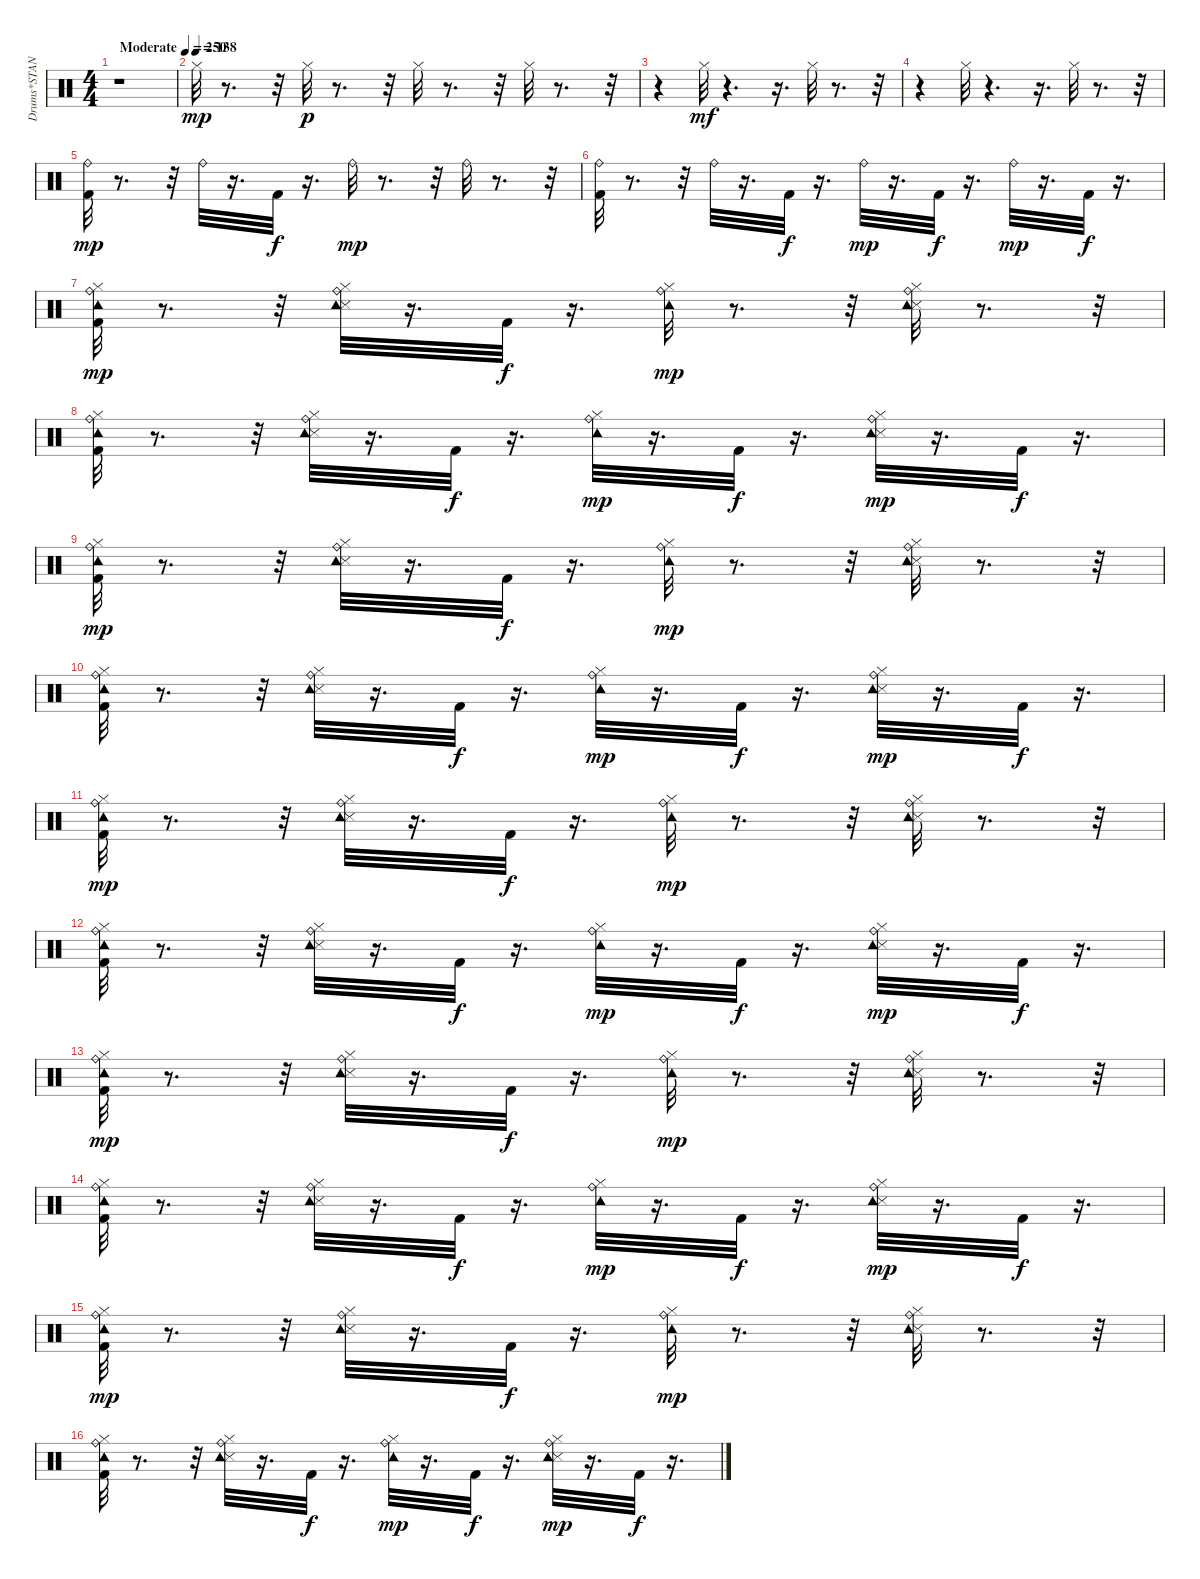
\track ("Drums*STANDARD      " "Drums*STAN") {instrument percussion}
\staff {score}
\articulation defaults
\ts (4 4)
\tempo (250 "Moderate")
\clef neutral
\ks c
r.1{dy mp} |
\tempo (138)
"Hi-Hat (closed)".32 r.8{d} r.32 "Hi-Hat (closed)".32{dy p} r.8{d} r.32 "Hi-Hat (closed)".32 r.8{d} r.32 "Hi-Hat (closed)".32 r.8{d} r.32 |
r.4 "Hi-Hat (closed)".32{dy mf} r.4{d} r.16{d} "Hi-Hat (closed)".32 r.8{d} r.32 |
r.4 "Hi-Hat (closed)".32 r.4{d} r.16{d} "Hi-Hat (closed)".32 r.8{d} r.32 |
("Kick (hit) 2" "Ride (bell)").32{dy mp} r.8{d} r.32 "Ride (bell)".32 r.16{d} "Kick (hit) 2".32{dy f} r.16{d} "Ride (bell)".32{dy mp} r.8{d} r.32 "Ride (bell)".32 r.8{d} r.32 |
("Kick (hit) 2" "Ride (bell)").32 r.8{d} r.32 "Ride (bell)".32 r.16{d} "Kick (hit) 2".32{dy f} r.16{d} "Ride (bell)".32{dy mp} r.16{d} "Kick (hit) 2".32{dy f} r.16{d} "Ride (bell)".32{dy mp} r.16{d} "Kick (hit) 2".32{dy f} r.16{d} |
("Kick (hit) 2" "Hi-Hat (closed)" "Ride (bell)" "Tambourine (hit)").32{dy mp} r.8{d} r.32 ("Hi-Hat (closed)" "Snare (side stick) 3" "Ride (bell)" "Tambourine (hit)").32 r.16{d} "Kick (hit) 2".32{dy f} r.16{d} ("Hi-Hat (closed)" "Ride (bell)" "Tambourine (hit)").32{dy mp} r.8{d} r.32 ("Hi-Hat (closed)" "Snare (side stick) 3" "Ride (bell)" "Tambourine (hit)").32 r.8{d} r.32 |
("Kick (hit) 2" "Hi-Hat (closed)" "Ride (bell)" "Tambourine (hit)").32 r.8{d} r.32 ("Hi-Hat (closed)" "Snare (side stick) 3" "Ride (bell)" "Tambourine (hit)").32 r.16{d} "Kick (hit) 2".32{dy f} r.16{d} ("Hi-Hat (closed)" "Ride (bell)" "Tambourine (hit)").32{dy mp} r.16{d} "Kick (hit) 2".32{dy f} r.16{d} ("Hi-Hat (closed)" "Snare (side stick) 3" "Ride (bell)" "Tambourine (hit)").32{dy mp} r.16{d} "Kick (hit) 2".32{dy f} r.16{d} |
("Kick (hit) 2" "Hi-Hat (closed)" "Ride (bell)" "Tambourine (hit)").32{dy mp} r.8{d} r.32 ("Hi-Hat (closed)" "Snare (side stick) 3" "Ride (bell)" "Tambourine (hit)").32 r.16{d} "Kick (hit) 2".32{dy f} r.16{d} ("Hi-Hat (closed)" "Ride (bell)" "Tambourine (hit)").32{dy mp} r.8{d} r.32 ("Hi-Hat (closed)" "Snare (side stick) 3" "Ride (bell)" "Tambourine (hit)").32 r.8{d} r.32 |
("Kick (hit) 2" "Hi-Hat (closed)" "Ride (bell)" "Tambourine (hit)").32 r.8{d} r.32 ("Hi-Hat (closed)" "Snare (side stick) 3" "Ride (bell)" "Tambourine (hit)").32 r.16{d} "Kick (hit) 2".32{dy f} r.16{d} ("Hi-Hat (closed)" "Ride (bell)" "Tambourine (hit)").32{dy mp} r.16{d} "Kick (hit) 2".32{dy f} r.16{d} ("Hi-Hat (closed)" "Snare (side stick) 3" "Ride (bell)" "Tambourine (hit)").32{dy mp} r.16{d} "Kick (hit) 2".32{dy f} r.16{d} |
("Kick (hit) 2" "Hi-Hat (closed)" "Ride (bell)" "Tambourine (hit)").32{dy mp} r.8{d} r.32 ("Hi-Hat (closed)" "Snare (side stick) 3" "Ride (bell)" "Tambourine (hit)").32 r.16{d} "Kick (hit) 2".32{dy f} r.16{d} ("Hi-Hat (closed)" "Ride (bell)" "Tambourine (hit)").32{dy mp} r.8{d} r.32 ("Hi-Hat (closed)" "Snare (side stick) 3" "Ride (bell)" "Tambourine (hit)").32 r.8{d} r.32 |
("Kick (hit) 2" "Hi-Hat (closed)" "Ride (bell)" "Tambourine (hit)").32 r.8{d} r.32 ("Hi-Hat (closed)" "Snare (side stick) 3" "Ride (bell)" "Tambourine (hit)").32 r.16{d} "Kick (hit) 2".32{dy f} r.16{d} ("Hi-Hat (closed)" "Ride (bell)" "Tambourine (hit)").32{dy mp} r.16{d} "Kick (hit) 2".32{dy f} r.16{d} ("Hi-Hat (closed)" "Snare (side stick) 3" "Ride (bell)" "Tambourine (hit)").32{dy mp} r.16{d} "Kick (hit) 2".32{dy f} r.16{d} |
("Kick (hit) 2" "Hi-Hat (closed)" "Ride (bell)" "Tambourine (hit)").32{dy mp} r.8{d} r.32 ("Hi-Hat (closed)" "Snare (side stick) 3" "Ride (bell)" "Tambourine (hit)").32 r.16{d} "Kick (hit) 2".32{dy f} r.16{d} ("Hi-Hat (closed)" "Ride (bell)" "Tambourine (hit)").32{dy mp} r.8{d} r.32 ("Hi-Hat (closed)" "Snare (side stick) 3" "Ride (bell)" "Tambourine (hit)").32 r.8{d} r.32 |
("Kick (hit) 2" "Hi-Hat (closed)" "Ride (bell)" "Tambourine (hit)").32 r.8{d} r.32 ("Hi-Hat (closed)" "Snare (side stick) 3" "Ride (bell)" "Tambourine (hit)").32 r.16{d} "Kick (hit) 2".32{dy f} r.16{d} ("Hi-Hat (closed)" "Ride (bell)" "Tambourine (hit)").32{dy mp} r.16{d} "Kick (hit) 2".32{dy f} r.16{d} ("Hi-Hat (closed)" "Snare (side stick) 3" "Ride (bell)" "Tambourine (hit)").32{dy mp} r.16{d} "Kick (hit) 2".32{dy f} r.16{d} |
("Kick (hit) 2" "Hi-Hat (closed)" "Ride (bell)" "Tambourine (hit)").32{dy mp} r.8{d} r.32 ("Hi-Hat (closed)" "Snare (side stick) 3" "Ride (bell)" "Tambourine (hit)").32 r.16{d} "Kick (hit) 2".32{dy f} r.16{d} ("Hi-Hat (closed)" "Ride (bell)" "Tambourine (hit)").32{dy mp} r.8{d} r.32 ("Hi-Hat (closed)" "Snare (side stick) 3" "Ride (bell)" "Tambourine (hit)").32 r.8{d} r.32 |
("Kick (hit) 2" "Hi-Hat (closed)" "Ride (bell)" "Tambourine (hit)").32 r.8{d} r.32 ("Hi-Hat (closed)" "Snare (side stick) 3" "Ride (bell)" "Tambourine (hit)").32 r.16{d} "Kick (hit) 2".32{dy f} r.16{d} ("Hi-Hat (closed)" "Ride (bell)" "Tambourine (hit)").32{dy mp} r.16{d} "Kick (hit) 2".32{dy f} r.16{d} ("Hi-Hat (closed)" "Snare (side stick) 3" "Ride (bell)" "Tambourine (hit)").32{dy mp} r.16{d} "Kick (hit) 2".32{dy f} r.16{d}
